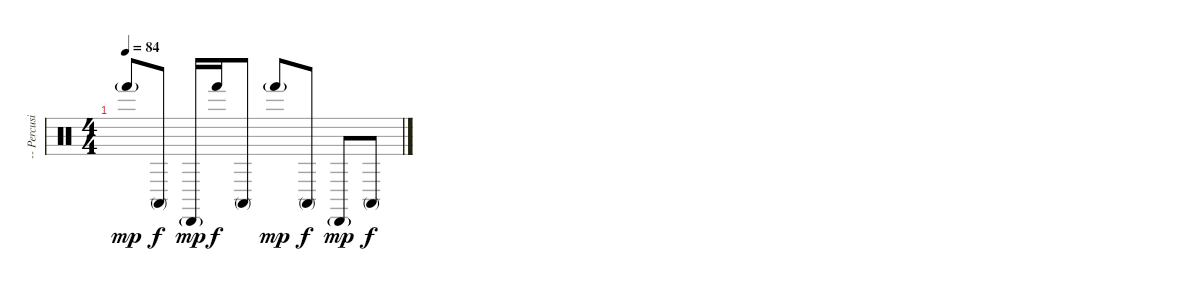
\track ("-- Percusion Kit" "-- Percusi") {instrument percussion}
\staff {score}
\articulation defaults
\ts (4 4)
\tempo 84
\clef neutral
\ks c "Hand (hit)"{g}.8{dy mp} "Conga high (mute)".8{dy f} "Cabasa (hit)"{g}.16{dy mp} "Hand (hit)".16{dy f} "Conga high (mute)".8 "Hand (hit)"{g}.8{dy mp} "Conga high (mute)".8{dy f} "Cabasa (hit)"{g}.8{dy mp} "Conga high (mute)".8{dy f}
